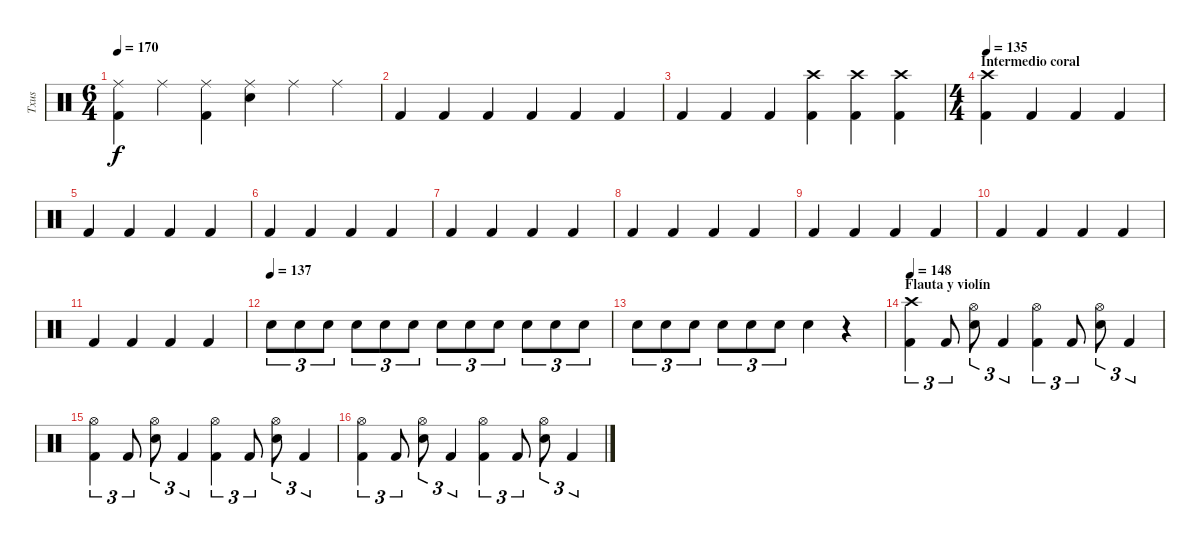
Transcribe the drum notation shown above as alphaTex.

\track ("Txus" "Txus") {instrument percussion}
\staff {score}
\articulation defaults
\ts (6 4)
\tempo 170
\clef neutral
\ks c
("Kick (hit) 2" "Ride (middle)").4{dy f} "Ride (middle)".4 ("Kick (hit) 2" "Ride (middle)").4 ("Electric Snare (hit)" "Ride (middle)").4 "Ride (middle)".4 "Ride (middle)".4 |
"Kick (hit) 2".4 "Kick (hit) 2".4 "Kick (hit) 2".4 "Kick (hit) 2".4 "Kick (hit) 2".4 "Kick (hit) 2".4 |
"Kick (hit) 2".4 "Kick (hit) 2".4 "Kick (hit) 2".4 ("Kick (hit) 2" "Crash high (hit)").4 ("Kick (hit) 2" "Crash high (hit)").4 ("Kick (hit) 2" "Crash high (hit)").4 |
\ts (4 4)
\section ("" "Intermedio coral")
\tempo 135
("Kick (hit) 2" "Crash high (hit)").4 "Kick (hit) 2".4 "Kick (hit) 2".4 "Kick (hit) 2".4 |
"Kick (hit) 2".4 "Kick (hit) 2".4 "Kick (hit) 2".4 "Kick (hit) 2".4 |
"Kick (hit) 2".4 "Kick (hit) 2".4 "Kick (hit) 2".4 "Kick (hit) 2".4 |
"Kick (hit) 2".4 "Kick (hit) 2".4 "Kick (hit) 2".4 "Kick (hit) 2".4 |
"Kick (hit) 2".4 "Kick (hit) 2".4 "Kick (hit) 2".4 "Kick (hit) 2".4 |
"Kick (hit) 2".4 "Kick (hit) 2".4 "Kick (hit) 2".4 "Kick (hit) 2".4 |
"Kick (hit) 2".4 "Kick (hit) 2".4 "Kick (hit) 2".4 "Kick (hit) 2".4 |
"Kick (hit) 2".4 "Kick (hit) 2".4 "Kick (hit) 2".4 "Kick (hit) 2".4 |
\tempo (137)
"Electric Snare (hit)".8{tu (3 2)} "Electric Snare (hit)".8{tu (3 2)} "Electric Snare (hit)".8{tu (3 2)} "Electric Snare (hit)".8{tu (3 2)} "Electric Snare (hit)".8{tu (3 2)} "Electric Snare (hit)".8{tu (3 2)} "Electric Snare (hit)".8{tu (3 2)} "Electric Snare (hit)".8{tu (3 2)} "Electric Snare (hit)".8{tu (3 2)} "Electric Snare (hit)".8{tu (3 2)} "Electric Snare (hit)".8{tu (3 2)} "Electric Snare (hit)".8{tu (3 2)} |
"Electric Snare (hit)".8{tu (3 2)} "Electric Snare (hit)".8{tu (3 2)} "Electric Snare (hit)".8{tu (3 2)} "Electric Snare (hit)".8{tu (3 2)} "Electric Snare (hit)".8{tu (3 2)} "Electric Snare (hit)".8{tu (3 2)} "Electric Snare (hit)".4 r.4 |
\section ("" "Flauta y violín ")
\tempo 148
("Kick (hit) 2" "Crash high (hit)").4{tu (3 2) volume 16} "Kick (hit) 2".8{tu (3 2)} ("Hi-Hat (open)" "Electric Snare (hit)").8{tu (3 2)} "Kick (hit) 2".4{tu (3 2)} ("Kick (hit) 2" "Hi-Hat (open)").4{tu (3 2)} "Kick (hit) 2".8{tu (3 2)} ("Hi-Hat (open)" "Electric Snare (hit)").8{tu (3 2)} "Kick (hit) 2".4{tu (3 2)} |
("Kick (hit) 2" "Hi-Hat (open)").4{tu (3 2)} "Kick (hit) 2".8{tu (3 2)} ("Hi-Hat (open)" "Electric Snare (hit)").8{tu (3 2)} "Kick (hit) 2".4{tu (3 2)} ("Kick (hit) 2" "Hi-Hat (open)").4{tu (3 2)} "Kick (hit) 2".8{tu (3 2)} ("Hi-Hat (open)" "Electric Snare (hit)").8{tu (3 2)} "Kick (hit) 2".4{tu (3 2)} |
("Kick (hit) 2" "Hi-Hat (open)").4{tu (3 2)} "Kick (hit) 2".8{tu (3 2)} ("Hi-Hat (open)" "Electric Snare (hit)").8{tu (3 2)} "Kick (hit) 2".4{tu (3 2)} ("Kick (hit) 2" "Hi-Hat (open)").4{tu (3 2)} "Kick (hit) 2".8{tu (3 2)} ("Hi-Hat (open)" "Electric Snare (hit)").8{tu (3 2)} "Kick (hit) 2".4{tu (3 2)}
